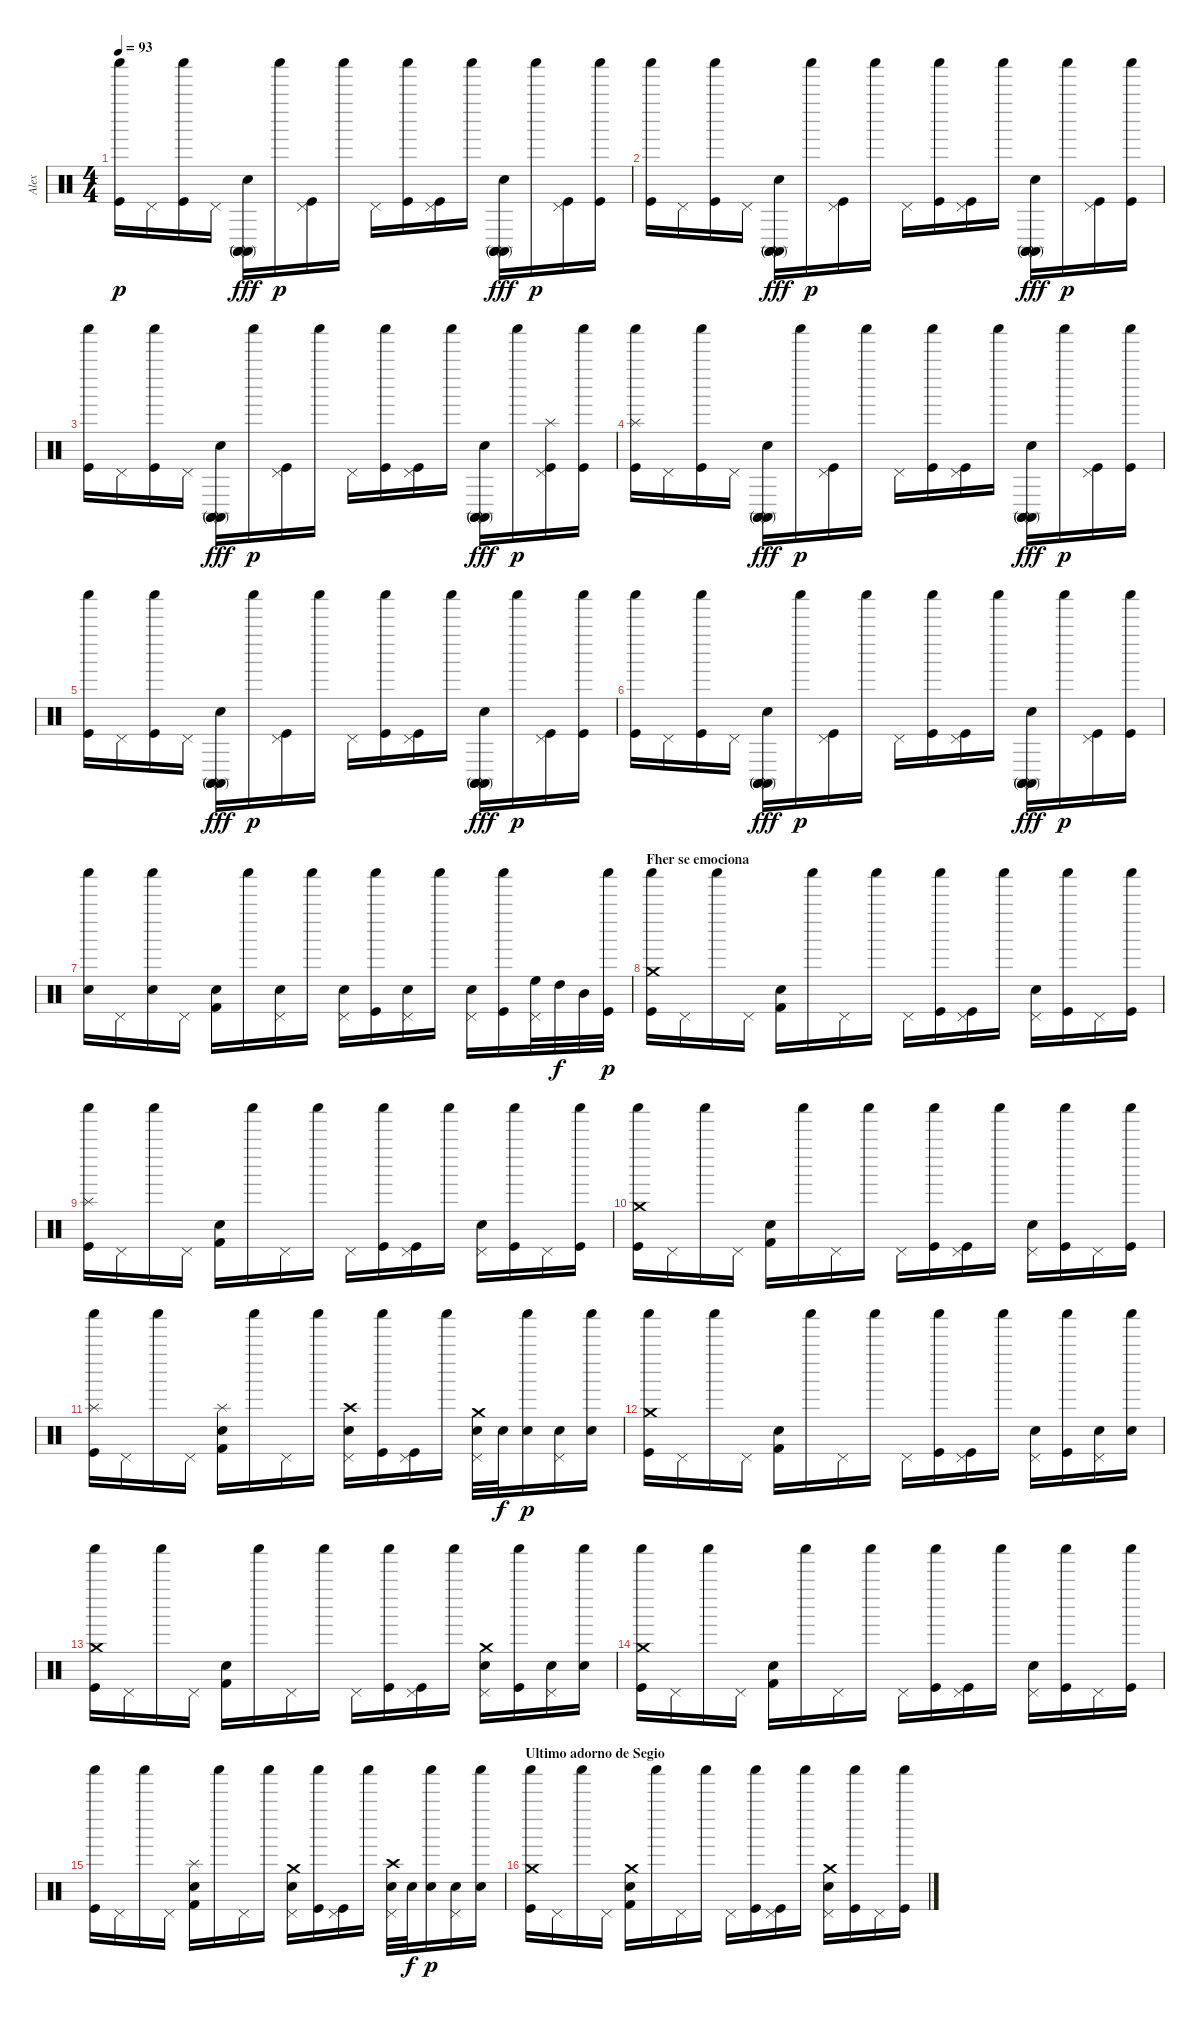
\track ("Alex" "Alex") {instrument percussion}
\staff {score}
\articulation defaults
\ts (4 4)
\tempo 93
\clef neutral
\ks c
("Kick (hit)" "Shaker (hit)").16{dy p volume 13} "Pedal Hi-Hat (hit)".16 ("Kick (hit)" "Shaker (hit)").16 "Pedal Hi-Hat (hit)".16 ("Electric Snare (hit)" "Conga high (mute)" "Conga high (mute)" "Conga high (mute)").16{dy fff} "Shaker (hit)".16{dy p} ("Kick (hit)" "Pedal Hi-Hat (hit)").16 "Shaker (hit)".16 "Pedal Hi-Hat (hit)".16 ("Kick (hit)" "Shaker (hit)").16 ("Kick (hit)" "Pedal Hi-Hat (hit)").16 "Shaker (hit)".16 ("Electric Snare (hit)" "Conga high (mute)" "Conga high (mute)" "Conga high (mute)").16{dy fff} "Shaker (hit)".16{dy p} ("Kick (hit)" "Pedal Hi-Hat (hit)").16 ("Kick (hit)" "Shaker (hit)").16 |
("Kick (hit)" "Shaker (hit)").16{volume 13} "Pedal Hi-Hat (hit)".16 ("Kick (hit)" "Shaker (hit)").16 "Pedal Hi-Hat (hit)".16 ("Electric Snare (hit)" "Conga high (mute)" "Conga high (mute)" "Conga high (mute)").16{dy fff} "Shaker (hit)".16{dy p} ("Kick (hit)" "Pedal Hi-Hat (hit)").16 "Shaker (hit)".16 "Pedal Hi-Hat (hit)".16 ("Kick (hit)" "Shaker (hit)").16 ("Kick (hit)" "Pedal Hi-Hat (hit)").16 "Shaker (hit)".16 ("Electric Snare (hit)" "Conga high (mute)" "Conga high (mute)" "Conga high (mute)").16{dy fff} "Shaker (hit)".16{dy p} ("Kick (hit)" "Pedal Hi-Hat (hit)").16 ("Kick (hit)" "Shaker (hit)").16 |
("Kick (hit)" "Shaker (hit)").16{volume 13} "Pedal Hi-Hat (hit)".16 ("Kick (hit)" "Shaker (hit)").16 "Pedal Hi-Hat (hit)".16 ("Electric Snare (hit)" "Conga high (mute)" "Conga high (mute)" "Conga high (mute)").16{dy fff} "Shaker (hit)".16{dy p} ("Kick (hit)" "Pedal Hi-Hat (hit)").16 "Shaker (hit)".16 "Pedal Hi-Hat (hit)".16 ("Kick (hit)" "Shaker (hit)").16 ("Kick (hit)" "Pedal Hi-Hat (hit)").16 "Shaker (hit)".16 ("Electric Snare (hit)" "Conga high (mute)" "Conga high (mute)" "Conga high (mute)").16{dy fff} "Shaker (hit)".16{dy p} ("Kick (hit)" "Pedal Hi-Hat (hit)" "Splash (hit)").16 ("Kick (hit)" "Shaker (hit)").16 |
("Kick (hit)" "Shaker (hit)" "Splash (hit)").16{volume 13} "Pedal Hi-Hat (hit)".16 ("Kick (hit)" "Shaker (hit)").16 "Pedal Hi-Hat (hit)".16 ("Electric Snare (hit)" "Conga high (mute)" "Conga high (mute)" "Conga high (mute)").16{dy fff} "Shaker (hit)".16{dy p} ("Kick (hit)" "Pedal Hi-Hat (hit)").16 "Shaker (hit)".16 "Pedal Hi-Hat (hit)".16 ("Kick (hit)" "Shaker (hit)").16 ("Kick (hit)" "Pedal Hi-Hat (hit)").16 "Shaker (hit)".16 ("Electric Snare (hit)" "Conga high (mute)" "Conga high (mute)" "Conga high (mute)").16{dy fff} "Shaker (hit)".16{dy p} ("Kick (hit)" "Pedal Hi-Hat (hit)").16 ("Kick (hit)" "Shaker (hit)").16 |
("Kick (hit)" "Shaker (hit)").16{volume 13} "Pedal Hi-Hat (hit)".16 ("Kick (hit)" "Shaker (hit)").16 "Pedal Hi-Hat (hit)".16 ("Electric Snare (hit)" "Conga high (mute)" "Conga high (mute)" "Conga high (mute)").16{dy fff} "Shaker (hit)".16{dy p} ("Kick (hit)" "Pedal Hi-Hat (hit)").16 "Shaker (hit)".16 "Pedal Hi-Hat (hit)".16 ("Kick (hit)" "Shaker (hit)").16 ("Kick (hit)" "Pedal Hi-Hat (hit)").16 "Shaker (hit)".16 ("Electric Snare (hit)" "Conga high (mute)" "Conga high (mute)" "Conga high (mute)").16{dy fff} "Shaker (hit)".16{dy p} ("Kick (hit)" "Pedal Hi-Hat (hit)").16 ("Kick (hit)" "Shaker (hit)").16 |
("Kick (hit)" "Shaker (hit)").16{volume 13} "Pedal Hi-Hat (hit)".16 ("Kick (hit)" "Shaker (hit)").16 "Pedal Hi-Hat (hit)".16 ("Electric Snare (hit)" "Conga high (mute)" "Conga high (mute)" "Conga high (mute)").16{dy fff} "Shaker (hit)".16{dy p} ("Kick (hit)" "Pedal Hi-Hat (hit)").16 "Shaker (hit)".16 "Pedal Hi-Hat (hit)".16 ("Kick (hit)" "Shaker (hit)").16 ("Kick (hit)" "Pedal Hi-Hat (hit)").16 "Shaker (hit)".16 ("Electric Snare (hit)" "Conga high (mute)" "Conga high (mute)" "Conga high (mute)").16{dy fff} "Shaker (hit)".16{dy p} ("Kick (hit)" "Pedal Hi-Hat (hit)").16 ("Kick (hit)" "Shaker (hit)").16 |
("Electric Snare (hit)" "Shaker (hit)").16 "Pedal Hi-Hat (hit)".16 ("Electric Snare (hit)" "Shaker (hit)").16 "Pedal Hi-Hat (hit)".16 ("Electric Snare (hit)" "Kick (hit) 2").16 "Shaker (hit)".16 ("Electric Snare (hit)" "Pedal Hi-Hat (hit)").16 "Shaker (hit)".16 ("Electric Snare (hit)" "Pedal Hi-Hat (hit)").16 ("Kick (hit)" "Shaker (hit)").16 ("Electric Snare (hit)" "Pedal Hi-Hat (hit)").16 "Shaker (hit)".16 ("Electric Snare (hit)" "Pedal Hi-Hat (hit)").16 ("Kick (hit)" "Shaker (hit)").16 ("High Floor Tom (hit)" "Pedal Hi-Hat (hit)").32 "High Tom (hit)".32{dy f} "Mid Tom (hit)".32 ("Kick (hit)" "Shaker (hit)").32{dy p} |
\section ("" "Fher se emociona")
("Kick (hit)" "Shaker (hit)" "Crash medium (hit)").16 "Pedal Hi-Hat (hit)".16 "Shaker (hit)".16 "Pedal Hi-Hat (hit)".16 ("Electric Snare (hit)" "Kick (hit) 2").16 "Shaker (hit)".16 "Pedal Hi-Hat (hit)".16 "Shaker (hit)".16 "Pedal Hi-Hat (hit)".16 ("Kick (hit)" "Shaker (hit)").16 ("Kick (hit)" "Pedal Hi-Hat (hit)").16 "Shaker (hit)".16 ("Electric Snare (hit)" "Pedal Hi-Hat (hit)").16 ("Kick (hit)" "Shaker (hit)").16 "Pedal Hi-Hat (hit)".16 ("Kick (hit)" "Shaker (hit)").16 |
("Kick (hit)" "Shaker (hit)" "Splash (hit)").16 "Pedal Hi-Hat (hit)".16 "Shaker (hit)".16 "Pedal Hi-Hat (hit)".16 ("Electric Snare (hit)" "Kick (hit) 2").16 "Shaker (hit)".16 "Pedal Hi-Hat (hit)".16 "Shaker (hit)".16 "Pedal Hi-Hat (hit)".16 ("Kick (hit)" "Shaker (hit)").16 ("Kick (hit)" "Pedal Hi-Hat (hit)").16 "Shaker (hit)".16 ("Electric Snare (hit)" "Pedal Hi-Hat (hit)").16 ("Kick (hit)" "Shaker (hit)").16 "Pedal Hi-Hat (hit)".16 ("Kick (hit)" "Shaker (hit)").16 |
("Kick (hit)" "Shaker (hit)" "Crash medium (hit)").16 "Pedal Hi-Hat (hit)".16 "Shaker (hit)".16 "Pedal Hi-Hat (hit)".16 ("Electric Snare (hit)" "Kick (hit) 2").16 "Shaker (hit)".16 "Pedal Hi-Hat (hit)".16 "Shaker (hit)".16 "Pedal Hi-Hat (hit)".16 ("Kick (hit)" "Shaker (hit)").16 ("Kick (hit)" "Pedal Hi-Hat (hit)").16 "Shaker (hit)".16 ("Electric Snare (hit)" "Pedal Hi-Hat (hit)").16 ("Kick (hit)" "Shaker (hit)").16 "Pedal Hi-Hat (hit)".16 ("Kick (hit)" "Shaker (hit)").16 |
("Kick (hit)" "Shaker (hit)" "Splash (hit)").16 "Pedal Hi-Hat (hit)".16 "Shaker (hit)".16 "Pedal Hi-Hat (hit)".16 ("Electric Snare (hit)" "Kick (hit) 2" "Splash (hit)").16 "Shaker (hit)".16 "Pedal Hi-Hat (hit)".16 "Shaker (hit)".16 ("Electric Snare (hit)" "Pedal Hi-Hat (hit)" "Crash high (hit)").16 ("Kick (hit)" "Shaker (hit)").16 ("Kick (hit)" "Pedal Hi-Hat (hit)").16 "Shaker (hit)".16 ("Electric Snare (hit)" "Pedal Hi-Hat (hit)" "Crash medium (hit)").32 "Electric Snare (hit)".32{dy f} ("Electric Snare (hit)" "Shaker (hit)").16{dy p} ("Electric Snare (hit)" "Pedal Hi-Hat (hit)").16 ("Electric Snare (hit)" "Shaker (hit)").16 |
("Kick (hit)" "Shaker (hit)" "Crash medium (hit)").16 "Pedal Hi-Hat (hit)".16 "Shaker (hit)".16 "Pedal Hi-Hat (hit)".16 ("Electric Snare (hit)" "Kick (hit) 2").16 "Shaker (hit)".16 "Pedal Hi-Hat (hit)".16 "Shaker (hit)".16 "Pedal Hi-Hat (hit)".16 ("Kick (hit)" "Shaker (hit)").16 ("Kick (hit)" "Pedal Hi-Hat (hit)").16 "Shaker (hit)".16 ("Electric Snare (hit)" "Pedal Hi-Hat (hit)").16 ("Kick (hit)" "Shaker (hit)").16 ("Electric Snare (hit)" "Pedal Hi-Hat (hit)").16 ("Electric Snare (hit)" "Shaker (hit)").16 |
("Kick (hit)" "Shaker (hit)" "Crash medium (hit)").16 "Pedal Hi-Hat (hit)".16 "Shaker (hit)".16 "Pedal Hi-Hat (hit)".16 ("Electric Snare (hit)" "Kick (hit) 2").16 "Shaker (hit)".16 "Pedal Hi-Hat (hit)".16 "Shaker (hit)".16 "Pedal Hi-Hat (hit)".16 ("Kick (hit)" "Shaker (hit)").16 ("Kick (hit)" "Pedal Hi-Hat (hit)").16 "Shaker (hit)".16 ("Electric Snare (hit)" "Pedal Hi-Hat (hit)" "Crash medium (hit)").16 ("Kick (hit)" "Shaker (hit)").16 ("Electric Snare (hit)" "Pedal Hi-Hat (hit)").16 ("Electric Snare (hit)" "Shaker (hit)").16 |
("Kick (hit)" "Shaker (hit)" "Crash medium (hit)").16 "Pedal Hi-Hat (hit)".16 "Shaker (hit)".16 "Pedal Hi-Hat (hit)".16 ("Electric Snare (hit)" "Kick (hit) 2").16 "Shaker (hit)".16 "Pedal Hi-Hat (hit)".16 "Shaker (hit)".16 "Pedal Hi-Hat (hit)".16 ("Kick (hit)" "Shaker (hit)").16 ("Kick (hit)" "Pedal Hi-Hat (hit)").16 "Shaker (hit)".16 ("Electric Snare (hit)" "Pedal Hi-Hat (hit)").16 ("Kick (hit)" "Shaker (hit)").16 "Pedal Hi-Hat (hit)".16 ("Kick (hit)" "Shaker (hit)").16 |
("Kick (hit)" "Shaker (hit)").16 "Pedal Hi-Hat (hit)".16 "Shaker (hit)".16 "Pedal Hi-Hat (hit)".16 ("Electric Snare (hit)" "Kick (hit) 2" "Splash (hit)").16 "Shaker (hit)".16 "Pedal Hi-Hat (hit)".16 "Shaker (hit)".16 ("Electric Snare (hit)" "Pedal Hi-Hat (hit)" "Crash medium (hit)").16 ("Kick (hit)" "Shaker (hit)").16 ("Kick (hit)" "Pedal Hi-Hat (hit)").16 "Shaker (hit)".16 ("Electric Snare (hit)" "Pedal Hi-Hat (hit)" "Crash high (hit)").32 "Electric Snare (hit)".32{dy f} ("Electric Snare (hit)" "Shaker (hit)").16{dy p} ("Electric Snare (hit)" "Pedal Hi-Hat (hit)").16 ("Electric Snare (hit)" "Shaker (hit)").16 |
\section ("" "Ultimo adorno de Segio")
("Kick (hit)" "Shaker (hit)" "Crash medium (hit)").16 "Pedal Hi-Hat (hit)".16 "Shaker (hit)".16 "Pedal Hi-Hat (hit)".16 ("Electric Snare (hit)" "Kick (hit) 2" "Crash medium (hit)").16 "Shaker (hit)".16 "Pedal Hi-Hat (hit)".16 "Shaker (hit)".16 "Pedal Hi-Hat (hit)".16 ("Kick (hit)" "Shaker (hit)").16 ("Kick (hit)" "Pedal Hi-Hat (hit)").16 "Shaker (hit)".16 ("Electric Snare (hit)" "Pedal Hi-Hat (hit)" "Crash medium (hit)").16 ("Kick (hit)" "Shaker (hit)").16 "Pedal Hi-Hat (hit)".16 ("Kick (hit)" "Shaker (hit)").16
